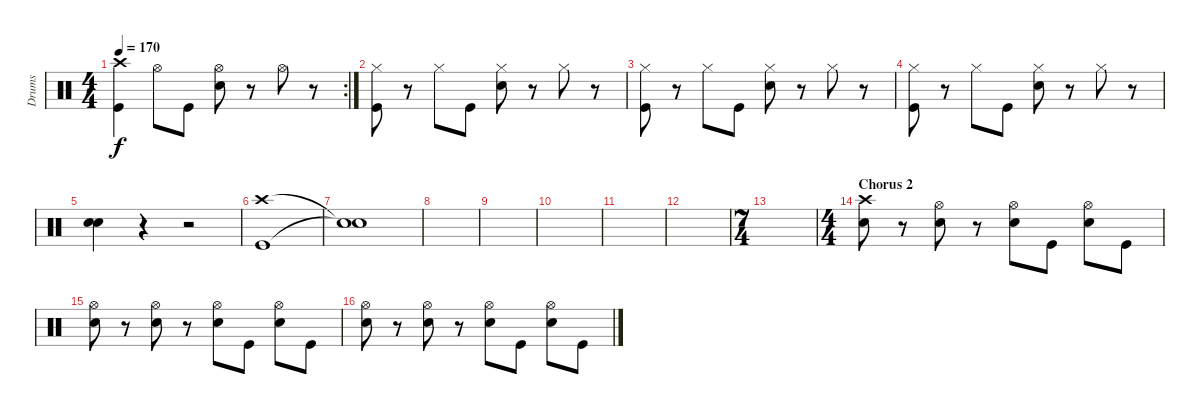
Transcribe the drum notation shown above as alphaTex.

\track ("Drums" "Drums") {instrument percussion}
\staff {score}
\articulation defaults
\rc 2
\ts (4 4)
\tempo 170
\clef neutral
\ks c
("Crash high (hit)" "Kick (hit)").4{dy f} "Hi-Hat (open)".8 "Kick (hit)".8 ("Hi-Hat (open)" "Snare (hit) 2").8 r.8 "Hi-Hat (open)".8 r.8 |
("Hi-Hat (closed)" "Kick (hit)").8 r.8 "Hi-Hat (closed)".8 "Kick (hit)".8 ("Hi-Hat (closed)" "Snare (hit) 2").8 r.8 "Hi-Hat (closed)".8 r.8 |
("Hi-Hat (closed)" "Kick (hit)").8 r.8 "Hi-Hat (closed)".8 "Kick (hit)".8 ("Hi-Hat (closed)" "Snare (hit) 2").8 r.8 "Hi-Hat (closed)".8 r.8 |
("Hi-Hat (closed)" "Kick (hit)").8 r.8 "Hi-Hat (closed)".8 "Kick (hit)".8 ("Hi-Hat (closed)" "Snare (hit) 2").8 r.8 "Hi-Hat (closed)".8 r.8 |
("Snare (hit) 2" "Snare (hit) 2").4 r.4 r.2 |
("Crash high (hit)" "Kick (hit)").1 |
("Snare (hit)"{t} "Snare (hit)"{t}).1 |
|
|
|
|
|
\ts (7 4)
|
\ts (4 4)
\section ("" "Chorus 2")
("Crash high (hit)" "Snare (hit) 2").8 r.8 ("Hi-Hat (open)" "Snare (hit) 2").8 r.8 ("Hi-Hat (open)" "Snare (hit) 2").8 "Kick (hit)".8 ("Hi-Hat (open)" "Snare (hit) 2").8 "Kick (hit)".8 |
("Hi-Hat (open)" "Snare (hit) 2").8 r.8 ("Hi-Hat (open)" "Snare (hit) 2").8 r.8 ("Hi-Hat (open)" "Snare (hit) 2").8 "Kick (hit)".8 ("Hi-Hat (open)" "Snare (hit) 2").8 "Kick (hit)".8 |
("Hi-Hat (open)" "Snare (hit) 2").8 r.8 ("Hi-Hat (open)" "Snare (hit) 2").8 r.8 ("Hi-Hat (open)" "Snare (hit) 2").8 "Kick (hit)".8 ("Hi-Hat (open)" "Snare (hit) 2").8 "Kick (hit)".8
